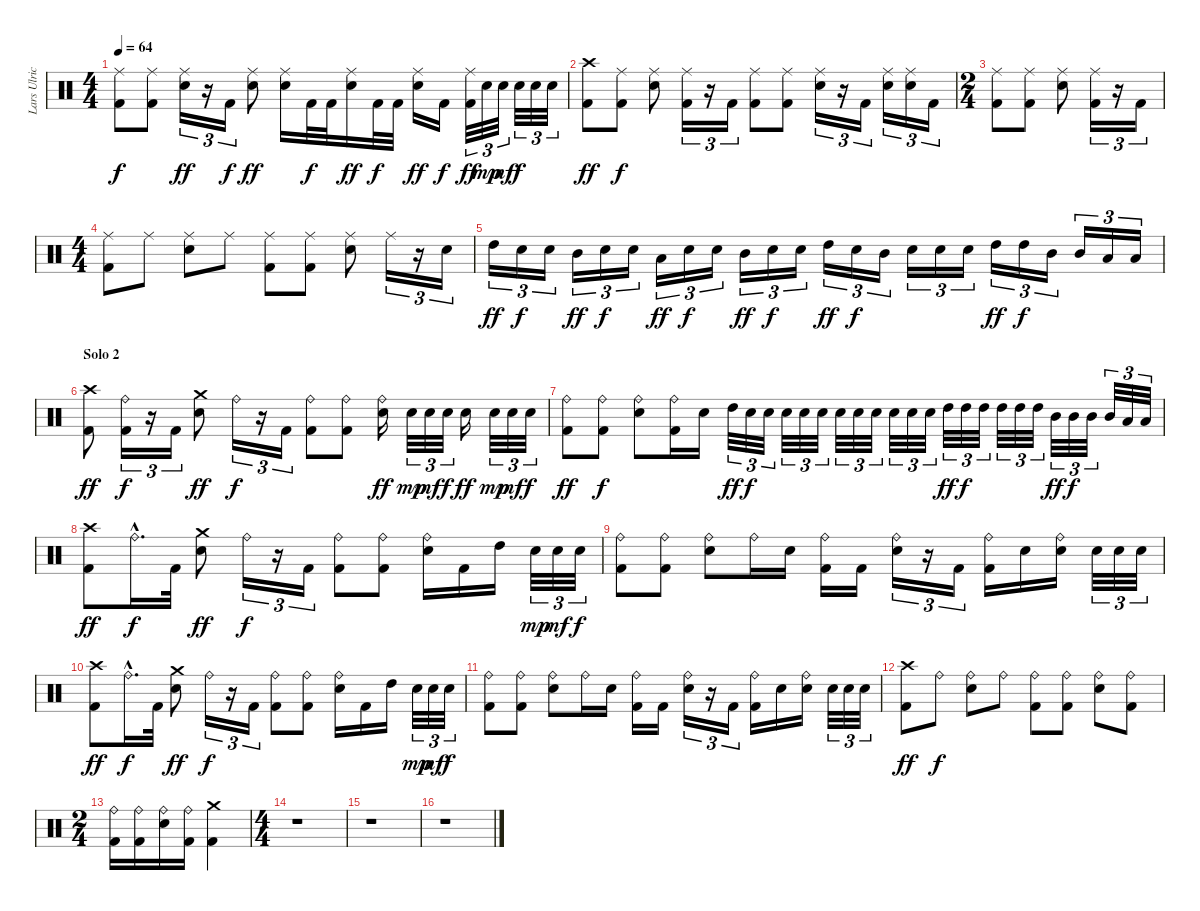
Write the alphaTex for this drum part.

\track ("Lars Ulrich" "Lars Ulric") {instrument percussion}
\staff {score}
\articulation defaults
\ts (4 4)
\tempo 64
\clef neutral
\ks c
("Ride (middle)" "Kick (hit) 2").8{dy f} ("Ride (middle)" "Kick (hit) 2").8 ("Ride (middle)" "Electric Snare (hit)").16{tu (3 2) dy ff} r.16{tu (3 2)} "Kick (hit) 2".16{tu (3 2) dy f} ("Ride (middle)" "Electric Snare (hit)").8{dy ff} ("Ride (middle)" "Electric Snare (hit)").16 "Kick (hit) 2".32{dy f} "Kick (hit) 2".32 ("Ride (middle)" "Electric Snare (hit)").16{dy ff} "Kick (hit) 2".32{dy f} "Kick (hit) 2".32 ("Ride (middle)" "Electric Snare (hit)").16{dy ff} "Kick (hit) 2".16{dy f} ("Ride (middle)" "Kick (hit) 2").32{tu (3 2) dy ff} "Electric Snare (hit)".32{tu (3 2) dy mp} "Electric Snare (hit)".32{tu (3 2) dy mf} "Electric Snare (hit)".32{tu (3 2) dy f} "Electric Snare (hit)".32{tu (3 2)} "Electric Snare (hit)".32{tu (3 2)} |
("Crash high (hit)" "Kick (hit) 2").8{dy ff} ("Ride (middle)" "Kick (hit) 2").8{dy f} ("Ride (middle)" "Electric Snare (hit)").8 ("Ride (middle)" "Kick (hit) 2").16{tu (3 2)} r.16{tu (3 2)} "Kick (hit) 2".16{tu (3 2)} ("Ride (middle)" "Kick (hit) 2").8 ("Ride (middle)" "Kick (hit) 2").8 ("Ride (middle)" "Electric Snare (hit)").16{tu (3 2)} r.16{tu (3 2)} "Kick (hit) 2".16{tu (3 2)} ("Ride (middle)" "Electric Snare (hit)").16{tu (3 2)} ("Ride (middle)" "Electric Snare (hit)").16{tu (3 2)} "Kick (hit) 2".16{tu (3 2)} |
\ts (2 4)
("Ride (middle)" "Kick (hit) 2").8 ("Ride (middle)" "Kick (hit) 2").8 ("Ride (middle)" "Electric Snare (hit)").8 ("Ride (middle)" "Kick (hit) 2").16{tu (3 2)} r.16{tu (3 2)} "Kick (hit) 2".16{tu (3 2)} |
\ts (4 4)
("Ride (middle)" "Kick (hit) 2").8 "Ride (middle)".8 ("Ride (middle)" "Electric Snare (hit)").8 "Ride (middle)".8 ("Ride (middle)" "Kick (hit) 2").8 ("Ride (middle)" "Kick (hit) 2").8 ("Ride (middle)" "Electric Snare (hit)").8 "Ride (middle)".16{tu (3 2)} r.16{tu (3 2)} "Electric Snare (hit)".16{tu (3 2)} |
"High Tom (hit)".16{tu (3 2) dy ff} "Electric Snare (hit)".16{tu (3 2) dy f} "Electric Snare (hit)".16{tu (3 2)} "Mid Tom (hit)".16{tu (3 2) dy ff} "Electric Snare (hit)".16{tu (3 2) dy f} "Electric Snare (hit)".16{tu (3 2)} "Low Tom (hit)".16{tu (3 2) dy ff} "Electric Snare (hit)".16{tu (3 2) dy f} "Electric Snare (hit)".16{tu (3 2)} "Mid Tom (hit)".16{tu (3 2) dy ff} "Electric Snare (hit)".16{tu (3 2) dy f} "Electric Snare (hit)".16{tu (3 2)} "High Tom (hit)".16{tu (3 2) dy ff} "Electric Snare (hit)".16{tu (3 2) dy f} "Mid Tom (hit)".16{tu (3 2)} "Electric Snare (hit)".16{tu (3 2)} "Electric Snare (hit)".16{tu (3 2)} "Electric Snare (hit)".16{tu (3 2)} "High Tom (hit)".16{tu (3 2) dy ff} "High Tom (hit)".16{tu (3 2) dy f} "Mid Tom (hit)".16{tu (3 2)} "Mid Tom (hit)".16{tu (3 2)} "Low Tom (hit)".16{tu (3 2)} "Low Tom (hit)".16{tu (3 2)} |
\section ("" "Solo 2")
("Crash high (hit)" "Kick (hit) 2").8{dy ff} ("Ride (bell)" "Kick (hit) 2").16{tu (3 2) dy f} r.16{tu (3 2)} "Kick (hit) 2".16{tu (3 2)} ("Crash medium (hit)" "Electric Snare (hit)").8{dy ff} "Ride (bell)".16{tu (3 2) dy f} r.16{tu (3 2)} "Kick (hit) 2".16{tu (3 2)} ("Ride (bell)" "Kick (hit) 2").8 ("Ride (bell)" "Kick (hit) 2").8 ("Ride (bell)" "Electric Snare (hit)").16{dy ff} "Electric Snare (hit)".32{tu (3 2) dy mp} "Electric Snare (hit)".32{tu (3 2) dy mf} "Electric Snare (hit)".32{tu (3 2) dy f} "Electric Snare (hit)".16{dy ff} "Electric Snare (hit)".32{tu (3 2) dy mp} "Electric Snare (hit)".32{tu (3 2) dy mf} "Electric Snare (hit)".32{tu (3 2) dy f} |
("Ride (bell)" "Kick (hit) 2").8{dy ff} ("Ride (bell)" "Kick (hit) 2").8{dy f} ("Ride (bell)" "Electric Snare (hit)").8 ("Ride (bell)" "Kick (hit) 2").16 "Electric Snare (hit)".16 "High Tom (hit)".32{tu (3 2) dy ff} "Electric Snare (hit)".32{tu (3 2) dy f} "Electric Snare (hit)".32{tu (3 2)} "Electric Snare (hit)".32{tu (3 2)} "Electric Snare (hit)".32{tu (3 2)} "Electric Snare (hit)".32{tu (3 2)} "Electric Snare (hit)".32{tu (3 2)} "Electric Snare (hit)".32{tu (3 2)} "Electric Snare (hit)".32{tu (3 2)} "Electric Snare (hit)".32{tu (3 2)} "Electric Snare (hit)".32{tu (3 2)} "Electric Snare (hit)".32{tu (3 2)} "High Tom (hit)".32{tu (3 2) dy ff} "High Tom (hit)".32{tu (3 2) dy f} "High Tom (hit)".32{tu (3 2)} "High Tom (hit)".32{tu (3 2)} "High Tom (hit)".32{tu (3 2)} "High Tom (hit)".32{tu (3 2)} "Mid Tom (hit)".32{tu (3 2) dy ff} "Mid Tom (hit)".32{tu (3 2) dy f} "Mid Tom (hit)".32{tu (3 2)} "Mid Tom (hit)".32{tu (3 2)} "Low Tom (hit)".32{tu (3 2)} "Low Tom (hit)".32{tu (3 2)} |
("Crash high (hit)" "Kick (hit) 2").8{dy ff} "Ride (bell)"{hac}.16{d dy f} "Kick (hit) 2".32 ("Crash medium (hit)" "Electric Snare (hit)").8{dy ff} "Ride (bell)".16{tu (3 2) dy f} r.16{tu (3 2)} "Kick (hit) 2".16{tu (3 2)} ("Ride (bell)" "Kick (hit) 2").8 ("Ride (bell)" "Kick (hit) 2").8 ("Ride (bell)" "Electric Snare (hit)").16 "Kick (hit) 2".16 "High Tom (hit)".16 "Electric Snare (hit)".32{tu (3 2) dy mp} "Electric Snare (hit)".32{tu (3 2) dy mf} "Electric Snare (hit)".32{tu (3 2) dy f} |
("Ride (bell)" "Kick (hit) 2").8 ("Ride (bell)" "Kick (hit) 2").8 ("Ride (bell)" "Electric Snare (hit)").8 "Ride (bell)".16 "Electric Snare (hit)".16 ("Ride (bell)" "Kick (hit) 2").16 "Kick (hit) 2".16 ("Ride (bell)" "Electric Snare (hit)").16{tu (3 2)} r.16{tu (3 2)} "Kick (hit) 2".16{tu (3 2)} ("Ride (bell)" "Kick (hit) 2").16 "Electric Snare (hit)".16 ("Ride (bell)" "Electric Snare (hit)").16 "Electric Snare (hit)".32{tu (3 2)} "Electric Snare (hit)".32{tu (3 2)} "Electric Snare (hit)".32{tu (3 2)} |
("Crash high (hit)" "Kick (hit) 2").8{dy ff} "Ride (bell)"{hac}.16{d dy f} "Kick (hit) 2".32 ("Crash medium (hit)" "Electric Snare (hit)").8{dy ff} "Ride (bell)".16{tu (3 2) dy f} r.16{tu (3 2)} "Kick (hit) 2".16{tu (3 2)} ("Ride (bell)" "Kick (hit) 2").8 ("Ride (bell)" "Kick (hit) 2").8 ("Ride (bell)" "Electric Snare (hit)").16 "Kick (hit) 2".16 "High Tom (hit)".16 "Electric Snare (hit)".32{tu (3 2) dy mp} "Electric Snare (hit)".32{tu (3 2) dy mf} "Electric Snare (hit)".32{tu (3 2) dy f} |
("Ride (bell)" "Kick (hit) 2").8 ("Ride (bell)" "Kick (hit) 2").8 ("Ride (bell)" "Electric Snare (hit)").8 "Ride (bell)".16 "Electric Snare (hit)".16 ("Ride (bell)" "Kick (hit) 2").16 "Kick (hit) 2".16 ("Ride (bell)" "Electric Snare (hit)").16{tu (3 2)} r.16{tu (3 2)} "Kick (hit) 2".16{tu (3 2)} ("Ride (bell)" "Kick (hit) 2").16 "Electric Snare (hit)".16 ("Ride (bell)" "Electric Snare (hit)").16 "Electric Snare (hit)".32{tu (3 2)} "Electric Snare (hit)".32{tu (3 2)} "Electric Snare (hit)".32{tu (3 2)} |
("Crash high (hit)" "Kick (hit) 2").8{dy ff} "Ride (bell)".8{dy f} ("Ride (bell)" "Electric Snare (hit)").8 "Ride (bell)".8 ("Ride (bell)" "Kick (hit) 2").8 ("Ride (bell)" "Kick (hit) 2").8 ("Ride (bell)" "Electric Snare (hit)").8 ("Ride (bell)" "Kick (hit) 2").8 |
\ts (2 4)
("Ride (bell)" "Kick (hit) 2").16 ("Ride (bell)" "Kick (hit) 2").16 ("Ride (bell)" "Electric Snare (hit)").16 ("Ride (bell)" "Kick (hit) 2").16 ("Crash medium (hit)" "Kick (hit) 2").4 |
\ts (4 4)
r.1 |
r.1 |
r.1
